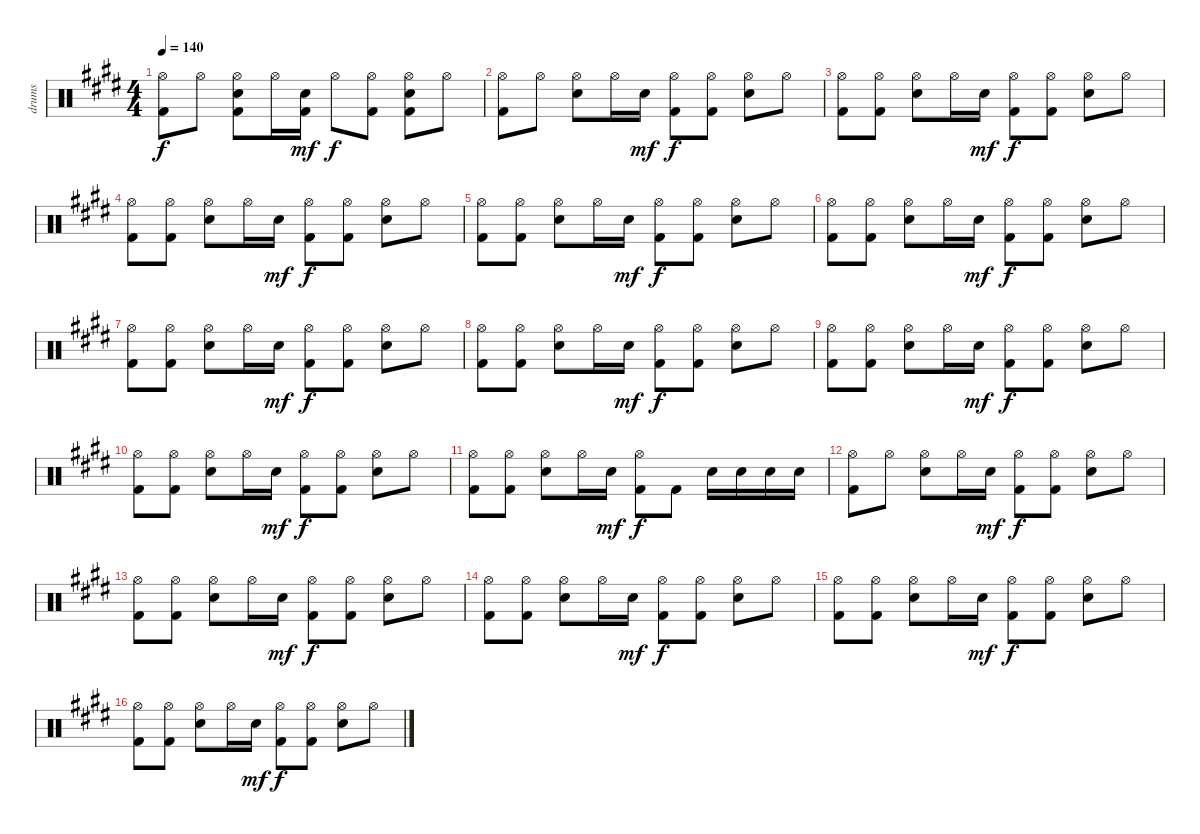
\track ("drums" "drums") {instrument percussion}
\staff {score}
\articulation defaults
\ts (4 4)
\tempo 140
\clef neutral
\ks e
("Hi-Hat (open)" "Kick (hit) 2").8{dy f} "Hi-Hat (open)".8 ("Hi-Hat (open)" "Snare (hit) 2" "Kick (hit) 2").8 "Hi-Hat (open)".16 ("Snare (hit) 2" "Kick (hit) 2").16{dy mf} "Hi-Hat (open)".8{dy f} ("Hi-Hat (open)" "Kick (hit) 2").8 ("Hi-Hat (open)" "Snare (hit) 2" "Kick (hit) 2").8 "Hi-Hat (open)".8 |
("Hi-Hat (open)" "Kick (hit) 2").8 "Hi-Hat (open)".8 ("Hi-Hat (open)" "Snare (hit) 2").8 "Hi-Hat (open)".16 "Snare (hit) 2".16{dy mf} ("Hi-Hat (open)" "Kick (hit) 2").8{dy f} ("Hi-Hat (open)" "Kick (hit) 2").8 ("Hi-Hat (open)" "Snare (hit) 2").8 "Hi-Hat (open)".8 |
("Hi-Hat (open)" "Kick (hit) 2").8 ("Hi-Hat (open)" "Kick (hit) 2").8 ("Hi-Hat (open)" "Snare (hit) 2").8 "Hi-Hat (open)".16 "Snare (hit) 2".16{dy mf} ("Hi-Hat (open)" "Kick (hit) 2").8{dy f} ("Hi-Hat (open)" "Kick (hit) 2").8 ("Hi-Hat (open)" "Snare (hit) 2").8 "Hi-Hat (open)".8 |
("Hi-Hat (open)" "Kick (hit) 2").8 ("Hi-Hat (open)" "Kick (hit) 2").8 ("Hi-Hat (open)" "Snare (hit) 2").8 "Hi-Hat (open)".16 "Snare (hit) 2".16{dy mf} ("Hi-Hat (open)" "Kick (hit) 2").8{dy f} ("Hi-Hat (open)" "Kick (hit) 2").8 ("Hi-Hat (open)" "Snare (hit) 2").8 "Hi-Hat (open)".8 |
("Hi-Hat (open)" "Kick (hit) 2").8 ("Hi-Hat (open)" "Kick (hit) 2").8 ("Hi-Hat (open)" "Snare (hit) 2").8 "Hi-Hat (open)".16 "Snare (hit) 2".16{dy mf} ("Hi-Hat (open)" "Kick (hit) 2").8{dy f} ("Hi-Hat (open)" "Kick (hit) 2").8 ("Hi-Hat (open)" "Snare (hit) 2").8 "Hi-Hat (open)".8 |
("Hi-Hat (open)" "Kick (hit) 2").8 ("Hi-Hat (open)" "Kick (hit) 2").8 ("Hi-Hat (open)" "Snare (hit) 2").8 "Hi-Hat (open)".16 "Snare (hit) 2".16{dy mf} ("Hi-Hat (open)" "Kick (hit) 2").8{dy f} ("Hi-Hat (open)" "Kick (hit) 2").8 ("Hi-Hat (open)" "Snare (hit) 2").8 "Hi-Hat (open)".8 |
("Hi-Hat (open)" "Kick (hit) 2").8 ("Hi-Hat (open)" "Kick (hit) 2").8 ("Hi-Hat (open)" "Snare (hit) 2").8 "Hi-Hat (open)".16 "Snare (hit) 2".16{dy mf} ("Hi-Hat (open)" "Kick (hit) 2").8{dy f} ("Hi-Hat (open)" "Kick (hit) 2").8 ("Hi-Hat (open)" "Snare (hit) 2").8 "Hi-Hat (open)".8 |
("Hi-Hat (open)" "Kick (hit) 2").8 ("Hi-Hat (open)" "Kick (hit) 2").8 ("Hi-Hat (open)" "Snare (hit) 2").8 "Hi-Hat (open)".16 "Snare (hit) 2".16{dy mf} ("Hi-Hat (open)" "Kick (hit) 2").8{dy f} ("Hi-Hat (open)" "Kick (hit) 2").8 ("Hi-Hat (open)" "Snare (hit) 2").8 "Hi-Hat (open)".8 |
("Hi-Hat (open)" "Kick (hit) 2").8 ("Hi-Hat (open)" "Kick (hit) 2").8 ("Hi-Hat (open)" "Snare (hit) 2").8 "Hi-Hat (open)".16 "Snare (hit) 2".16{dy mf} ("Hi-Hat (open)" "Kick (hit) 2").8{dy f} ("Hi-Hat (open)" "Kick (hit) 2").8 ("Hi-Hat (open)" "Snare (hit) 2").8 "Hi-Hat (open)".8 |
("Hi-Hat (open)" "Kick (hit) 2").8 ("Hi-Hat (open)" "Kick (hit) 2").8 ("Hi-Hat (open)" "Snare (hit) 2").8 "Hi-Hat (open)".16 "Snare (hit) 2".16{dy mf} ("Hi-Hat (open)" "Kick (hit) 2").8{dy f} ("Hi-Hat (open)" "Kick (hit) 2").8 ("Hi-Hat (open)" "Snare (hit) 2").8 "Hi-Hat (open)".8 |
("Hi-Hat (open)" "Kick (hit) 2").8 ("Hi-Hat (open)" "Kick (hit) 2").8 ("Hi-Hat (open)" "Snare (hit) 2").8 "Hi-Hat (open)".16 "Snare (hit) 2".16{dy mf} ("Hi-Hat (open)" "Kick (hit) 2").8{dy f} "Kick (hit) 2".8 "Snare (hit) 2".16 "Snare (hit) 2".16 "Snare (hit) 2".16 "Snare (hit) 2".16 |
("Hi-Hat (open)" "Kick (hit) 2").8 "Hi-Hat (open)".8 ("Hi-Hat (open)" "Snare (hit) 2").8 "Hi-Hat (open)".16 "Snare (hit) 2".16{dy mf} ("Hi-Hat (open)" "Kick (hit) 2").8{dy f} ("Hi-Hat (open)" "Kick (hit) 2").8 ("Hi-Hat (open)" "Snare (hit) 2").8 "Hi-Hat (open)".8 |
("Hi-Hat (open)" "Kick (hit) 2").8 ("Hi-Hat (open)" "Kick (hit) 2").8 ("Hi-Hat (open)" "Snare (hit) 2").8 "Hi-Hat (open)".16 "Snare (hit) 2".16{dy mf} ("Hi-Hat (open)" "Kick (hit) 2").8{dy f} ("Hi-Hat (open)" "Kick (hit) 2").8 ("Hi-Hat (open)" "Snare (hit) 2").8 "Hi-Hat (open)".8 |
("Hi-Hat (open)" "Kick (hit) 2").8 ("Hi-Hat (open)" "Kick (hit) 2").8 ("Hi-Hat (open)" "Snare (hit) 2").8 "Hi-Hat (open)".16 "Snare (hit) 2".16{dy mf} ("Hi-Hat (open)" "Kick (hit) 2").8{dy f} ("Hi-Hat (open)" "Kick (hit) 2").8 ("Hi-Hat (open)" "Snare (hit) 2").8 "Hi-Hat (open)".8 |
("Hi-Hat (open)" "Kick (hit) 2").8 ("Hi-Hat (open)" "Kick (hit) 2").8 ("Hi-Hat (open)" "Snare (hit) 2").8 "Hi-Hat (open)".16 "Snare (hit) 2".16{dy mf} ("Hi-Hat (open)" "Kick (hit) 2").8{dy f} ("Hi-Hat (open)" "Kick (hit) 2").8 ("Hi-Hat (open)" "Snare (hit) 2").8 "Hi-Hat (open)".8 |
("Hi-Hat (open)" "Kick (hit) 2").8 ("Hi-Hat (open)" "Kick (hit) 2").8 ("Hi-Hat (open)" "Snare (hit) 2").8 "Hi-Hat (open)".16 "Snare (hit) 2".16{dy mf} ("Hi-Hat (open)" "Kick (hit) 2").8{dy f} ("Hi-Hat (open)" "Kick (hit) 2").8 ("Hi-Hat (open)" "Snare (hit) 2").8 "Hi-Hat (open)".8
